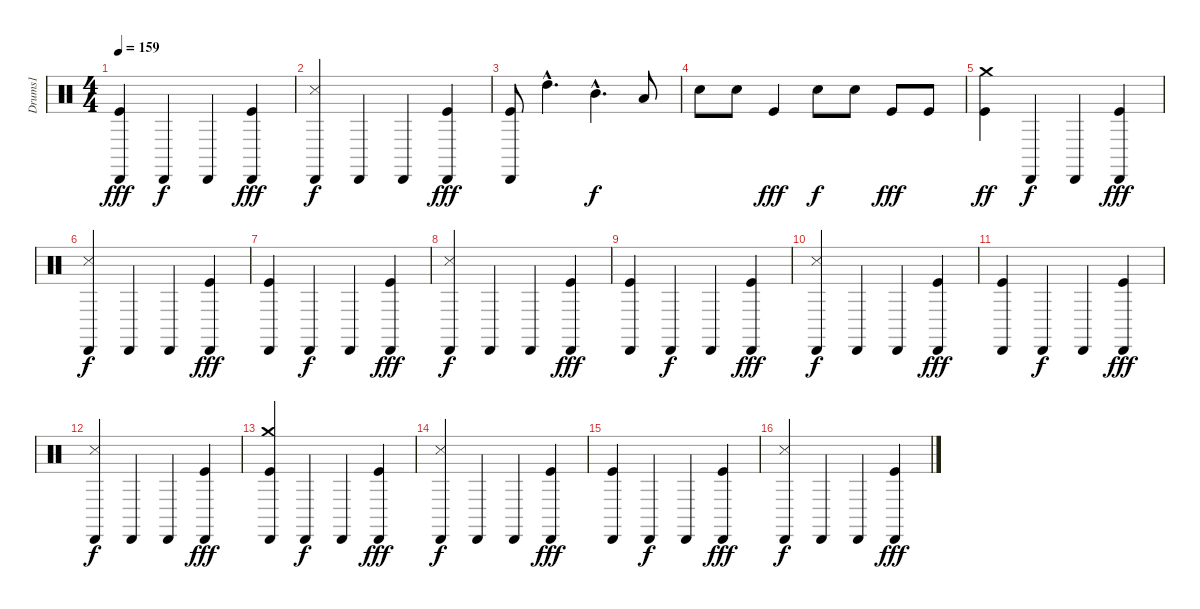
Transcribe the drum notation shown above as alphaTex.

\track ("Drums1" "Drums1") {instrument percussion}
\staff {score}
\articulation defaults
\ts (4 4)
\tempo 159
\clef neutral
\ks c
("Cabasa (hit)" "Kick (hit)").4{dy fff} "Cabasa (hit)".4{dy f} "Cabasa (hit)".4 ("Cabasa (hit)" "Kick (hit)").4{dy fff} |
("Cabasa (hit)" "Snare (side stick) 3").4{dy f} "Cabasa (hit)".4 "Cabasa (hit)".4 ("Cabasa (hit)" "Kick (hit)").4{dy fff} |
("Cabasa (hit)" "Kick (hit)").8 "High Tom (hit)"{hac}.4{d} "Mid Tom (hit)"{hac}.4{d dy f} "Low Tom (hit)".8 |
"Electric Snare (hit)".8 "Electric Snare (hit)".8 "Kick (hit)".4{dy fff} "Snare (hit) 2".8{dy f} "Snare (hit) 2".8 "Kick (hit)".8{dy fff} "Kick (hit)".8 |
("Crash medium (hit)" "Kick (hit)").4{dy ff} "Cabasa (hit)".4{dy f} "Cabasa (hit)".4 ("Cabasa (hit)" "Kick (hit)").4{dy fff} |
("Cabasa (hit)" "Snare (side stick) 3").4{dy f} "Cabasa (hit)".4 "Cabasa (hit)".4 ("Cabasa (hit)" "Kick (hit)").4{dy fff} |
("Cabasa (hit)" "Kick (hit)").4 "Cabasa (hit)".4{dy f} "Cabasa (hit)".4 ("Cabasa (hit)" "Kick (hit)").4{dy fff} |
("Cabasa (hit)" "Snare (side stick) 3").4{dy f} "Cabasa (hit)".4 "Cabasa (hit)".4 ("Cabasa (hit)" "Kick (hit)").4{dy fff} |
("Cabasa (hit)" "Kick (hit)").4 "Cabasa (hit)".4{dy f} "Cabasa (hit)".4 ("Cabasa (hit)" "Kick (hit)").4{dy fff} |
("Cabasa (hit)" "Snare (side stick) 3").4{dy f} "Cabasa (hit)".4 "Cabasa (hit)".4 ("Cabasa (hit)" "Kick (hit)").4{dy fff} |
("Cabasa (hit)" "Kick (hit)").4 "Cabasa (hit)".4{dy f} "Cabasa (hit)".4 ("Cabasa (hit)" "Kick (hit)").4{dy fff} |
("Cabasa (hit)" "Snare (side stick) 3").4{dy f} "Cabasa (hit)".4 "Cabasa (hit)".4 ("Cabasa (hit)" "Kick (hit)").4{dy fff} |
("Cabasa (hit)" "Kick (hit)" "Crash medium (hit)").4 "Cabasa (hit)".4{dy f} "Cabasa (hit)".4 ("Cabasa (hit)" "Kick (hit)").4{dy fff} |
("Cabasa (hit)" "Snare (side stick) 3").4{dy f} "Cabasa (hit)".4 "Cabasa (hit)".4 ("Cabasa (hit)" "Kick (hit)").4{dy fff} |
("Cabasa (hit)" "Kick (hit)").4 "Cabasa (hit)".4{dy f} "Cabasa (hit)".4 ("Cabasa (hit)" "Kick (hit)").4{dy fff} |
("Cabasa (hit)" "Snare (side stick) 3").4{dy f} "Cabasa (hit)".4 "Cabasa (hit)".4 ("Cabasa (hit)" "Kick (hit)").4{dy fff}
